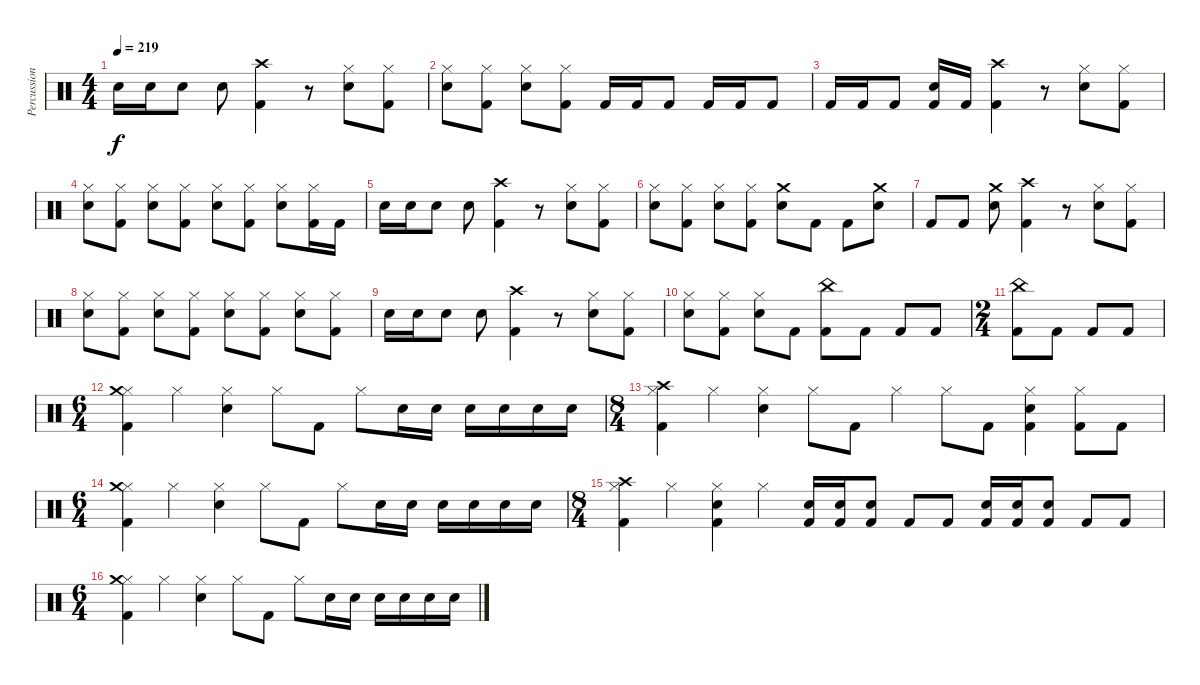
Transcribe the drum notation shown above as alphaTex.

\track ("Percussion" "Percussion") {instrument percussion}
\staff {score}
\articulation defaults
\ts (4 4)
\tempo 219
\clef neutral
\ks c "Electric Snare (hit)".16{dy f} "Electric Snare (hit)".16 "Electric Snare (hit)".8 "Electric Snare (hit)".8
("Crash high (hit)" "Kick (hit) 2").4 r.8 ("Hi-Hat (closed)" "Electric Snare (hit)").8 ("Hi-Hat (closed)" "Kick (hit) 2").8 |
("Hi-Hat (closed)" "Electric Snare (hit)").8 ("Hi-Hat (closed)" "Kick (hit) 2").8 ("Hi-Hat (closed)" "Electric Snare (hit)").8 ("Hi-Hat (closed)" "Kick (hit) 2").8 "Kick (hit) 2".16 "Kick (hit) 2".16 "Kick (hit) 2".8 "Kick (hit) 2".16 "Kick (hit) 2".16 "Kick (hit) 2".8 |
"Kick (hit) 2".16 "Kick (hit) 2".16 "Kick (hit) 2".8 ("Electric Snare (hit)" "Kick (hit) 2").16 "Kick (hit) 2".16 ("Crash high (hit)" "Kick (hit) 2").4 r.8 ("Hi-Hat (closed)" "Electric Snare (hit)").8 ("Hi-Hat (closed)" "Kick (hit) 2").8 |
("Hi-Hat (closed)" "Electric Snare (hit)").8 ("Hi-Hat (closed)" "Kick (hit) 2").8 ("Hi-Hat (closed)" "Electric Snare (hit)").8 ("Hi-Hat (closed)" "Kick (hit) 2").8 ("Hi-Hat (closed)" "Electric Snare (hit)").8 ("Hi-Hat (closed)" "Kick (hit) 2").8 ("Hi-Hat (closed)" "Electric Snare (hit)").8 ("Hi-Hat (closed)" "Kick (hit) 2").16 "Kick (hit) 2".16 |
"Electric Snare (hit)".16 "Electric Snare (hit)".16 "Electric Snare (hit)".8 "Electric Snare (hit)".8 ("Crash high (hit)" "Kick (hit) 2").4 r.8 ("Hi-Hat (closed)" "Electric Snare (hit)").8 ("Hi-Hat (closed)" "Kick (hit) 2").8 |
("Hi-Hat (closed)" "Electric Snare (hit)").8 ("Hi-Hat (closed)" "Kick (hit) 2").8 ("Hi-Hat (closed)" "Electric Snare (hit)").8 ("Hi-Hat (closed)" "Kick (hit) 2").8 ("Crash medium (hit)" "Electric Snare (hit)").8 "Kick (hit) 2".8 "Kick (hit) 2".8 ("Crash medium (hit)" "Electric Snare (hit)").8 |
"Kick (hit) 2".8 "Kick (hit) 2".8 ("Crash medium (hit)" "Electric Snare (hit)").8 ("Crash high (hit)" "Kick (hit) 2").4 r.8 ("Hi-Hat (closed)" "Electric Snare (hit)").8 ("Hi-Hat (closed)" "Kick (hit) 2").8 |
("Hi-Hat (closed)" "Electric Snare (hit)").8 ("Hi-Hat (closed)" "Kick (hit) 2").8 ("Hi-Hat (closed)" "Electric Snare (hit)").8 ("Hi-Hat (closed)" "Kick (hit) 2").8 ("Hi-Hat (closed)" "Electric Snare (hit)").8 ("Hi-Hat (closed)" "Kick (hit) 2").8 ("Hi-Hat (closed)" "Electric Snare (hit)").8 ("Hi-Hat (closed)" "Kick (hit) 2").8 |
"Electric Snare (hit)".16 "Electric Snare (hit)".16 "Electric Snare (hit)".8 "Electric Snare (hit)".8 ("Crash high (hit)" "Kick (hit) 2").4 r.8 ("Hi-Hat (closed)" "Electric Snare (hit)").8 ("Hi-Hat (closed)" "Kick (hit) 2").8 |
("Hi-Hat (closed)" "Electric Snare (hit)").8 ("Hi-Hat (closed)" "Kick (hit) 2").8 ("Hi-Hat (closed)" "Electric Snare (hit)").8 "Kick (hit) 2".8 ("China (hit)" "Kick (hit) 2").8 "Kick (hit) 2".8 "Kick (hit) 2".8 "Kick (hit) 2".8 |
\ts (2 4)
("China (hit)" "Kick (hit) 2").8 "Kick (hit) 2".8 "Kick (hit) 2".8 "Kick (hit) 2".8 |
\ts (6 4)
("Hi-Hat (closed)" "Crash medium (hit)" "Kick (hit) 2").4 "Hi-Hat (closed)".4 ("Hi-Hat (closed)" "Electric Snare (hit)").4 "Hi-Hat (closed)".8 "Kick (hit) 2".8 "Hi-Hat (closed)".8 "Electric Snare (hit)".16 "Electric Snare (hit)".16 "Electric Snare (hit)".16 "Electric Snare (hit)".16 "Electric Snare (hit)".16 "Electric Snare (hit)".16 |
\ts (8 4)
("Hi-Hat (closed)" "Crash high (hit)" "Kick (hit) 2").4 "Hi-Hat (closed)".4 ("Hi-Hat (closed)" "Electric Snare (hit)").4 "Hi-Hat (closed)".8 "Kick (hit) 2".8 "Hi-Hat (closed)".4 "Hi-Hat (closed)".8 "Kick (hit) 2".8 ("Hi-Hat (closed)" "Kick (hit) 2" "Electric Snare (hit)").4 ("Hi-Hat (closed)" "Kick (hit) 2").8 "Kick (hit) 2".8 |
\ts (6 4)
("Hi-Hat (closed)" "Crash medium (hit)" "Kick (hit) 2").4 "Hi-Hat (closed)".4 ("Hi-Hat (closed)" "Electric Snare (hit)").4 "Hi-Hat (closed)".8 "Kick (hit) 2".8 "Hi-Hat (closed)".8 "Electric Snare (hit)".16 "Electric Snare (hit)".16 "Electric Snare (hit)".16 "Electric Snare (hit)".16 "Electric Snare (hit)".16 "Electric Snare (hit)".16 |
\ts (8 4)
("Hi-Hat (closed)" "Crash high (hit)" "Kick (hit) 2").4 "Hi-Hat (closed)".4 ("Hi-Hat (closed)" "Kick (hit) 2" "Electric Snare (hit)").4 "Hi-Hat (closed)".4 ("Electric Snare (hit)" "Kick (hit) 2").16 ("Electric Snare (hit)" "Kick (hit) 2").16 ("Electric Snare (hit)" "Kick (hit) 2").8 "Kick (hit) 2".8 "Kick (hit) 2".8 ("Electric Snare (hit)" "Kick (hit) 2").16 ("Electric Snare (hit)" "Kick (hit) 2").16 ("Electric Snare (hit)" "Kick (hit) 2").8 "Kick (hit) 2".8 "Kick (hit) 2".8 |
\ts (6 4)
("Hi-Hat (closed)" "Crash medium (hit)" "Kick (hit) 2").4 "Hi-Hat (closed)".4 ("Hi-Hat (closed)" "Electric Snare (hit)").4 "Hi-Hat (closed)".8 "Kick (hit) 2".8 "Hi-Hat (closed)".8 "Electric Snare (hit)".16 "Electric Snare (hit)".16 "Electric Snare (hit)".16 "Electric Snare (hit)".16 "Electric Snare (hit)".16 "Electric Snare (hit)".16
